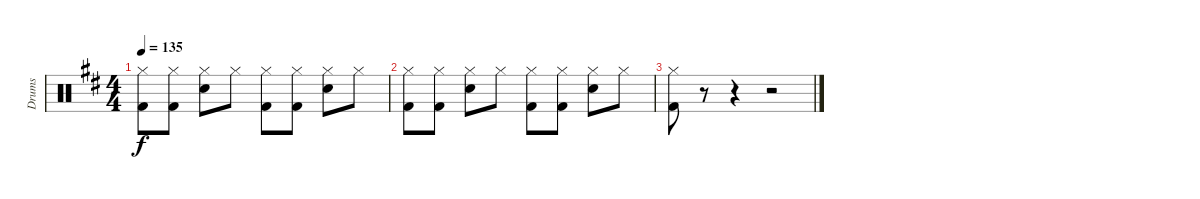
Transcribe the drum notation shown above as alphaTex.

\track ("Drums" "Drums") {instrument percussion}
\staff {score}
\articulation defaults
\ts (4 4)
\tempo 135
\clef neutral
\ks d
("Hi-Hat (closed)" "Kick (hit) 2").8{dy f} ("Hi-Hat (closed)" "Kick (hit) 2").8 ("Hi-Hat (closed)" "Snare (hit) 2").8 "Hi-Hat (closed)".8 ("Hi-Hat (closed)" "Kick (hit) 2").8 ("Hi-Hat (closed)" "Kick (hit) 2").8 ("Hi-Hat (closed)" "Snare (hit) 2").8 "Hi-Hat (closed)".8 |
("Hi-Hat (closed)" "Kick (hit) 2").8 ("Hi-Hat (closed)" "Kick (hit) 2").8 ("Hi-Hat (closed)" "Snare (hit) 2").8 "Hi-Hat (closed)".8 ("Hi-Hat (closed)" "Kick (hit) 2").8 ("Hi-Hat (closed)" "Kick (hit) 2").8 ("Hi-Hat (closed)" "Snare (hit) 2").8 "Hi-Hat (closed)".8 |
("Hi-Hat (closed)" "Kick (hit) 2").8 r.8 r.4 r.2
